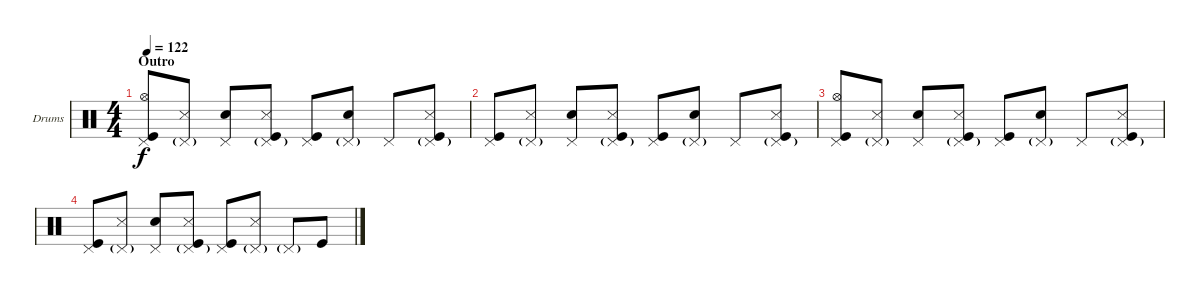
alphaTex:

\bracketExtendMode groupsimilarinstruments
\firstSystemTrackNameOrientation horizontal
\otherSystemsTrackNameOrientation horizontal
\track ("Drumkit" "Drums") {instrument percussion}
\staff {score}
\articulation defaults
\ts (4 4)
\section ("" "Outro")
\tempo 122
\clef neutral
\ks c
("Pedal Hi-Hat (hit)" "Hi-Hat (open)" "Kick (hit)").8{dy f} ("Snare (side stick) 3" "Pedal Hi-Hat (hit)"{g}).8 ("Pedal Hi-Hat (hit)" "Snare (hit) 2").8 ("Snare (side stick) 3" "Pedal Hi-Hat (hit)"{g} "Kick (hit)").8 ("Pedal Hi-Hat (hit)" "Kick (hit)").8 ("Snare (hit) 2" "Pedal Hi-Hat (hit)"{g}).8 "Pedal Hi-Hat (hit)".8 ("Snare (side stick) 3" "Pedal Hi-Hat (hit)"{g} "Kick (hit)").8 |
("Pedal Hi-Hat (hit)" "Kick (hit)").8 ("Snare (side stick) 3" "Pedal Hi-Hat (hit)"{g}).8 ("Pedal Hi-Hat (hit)" "Snare (hit) 2").8 ("Snare (side stick) 3" "Pedal Hi-Hat (hit)"{g} "Kick (hit)").8 ("Pedal Hi-Hat (hit)" "Kick (hit)").8 ("Snare (hit) 2" "Pedal Hi-Hat (hit)"{g}).8 "Pedal Hi-Hat (hit)".8 ("Snare (side stick) 3" "Pedal Hi-Hat (hit)"{g} "Kick (hit)").8 |
("Pedal Hi-Hat (hit)" "Hi-Hat (open)" "Kick (hit)").8 ("Snare (side stick) 3" "Pedal Hi-Hat (hit)"{g}).8 ("Pedal Hi-Hat (hit)" "Snare (hit) 2").8 ("Snare (side stick) 3" "Pedal Hi-Hat (hit)"{g} "Kick (hit)").8 ("Pedal Hi-Hat (hit)" "Kick (hit)").8 ("Snare (hit) 2" "Pedal Hi-Hat (hit)"{g}).8 "Pedal Hi-Hat (hit)".8 ("Snare (side stick) 3" "Pedal Hi-Hat (hit)"{g} "Kick (hit)").8 |
("Pedal Hi-Hat (hit)" "Kick (hit)").8 ("Snare (side stick) 3" "Pedal Hi-Hat (hit)"{g}).8 ("Pedal Hi-Hat (hit)" "Snare (hit) 2").8 ("Snare (side stick) 3" "Pedal Hi-Hat (hit)"{g} "Kick (hit)").8 ("Pedal Hi-Hat (hit)" "Kick (hit)").8 ("Snare (side stick) 3" "Pedal Hi-Hat (hit)"{g}).8 "Pedal Hi-Hat (hit)"{g}.8 "Kick (hit)".8
